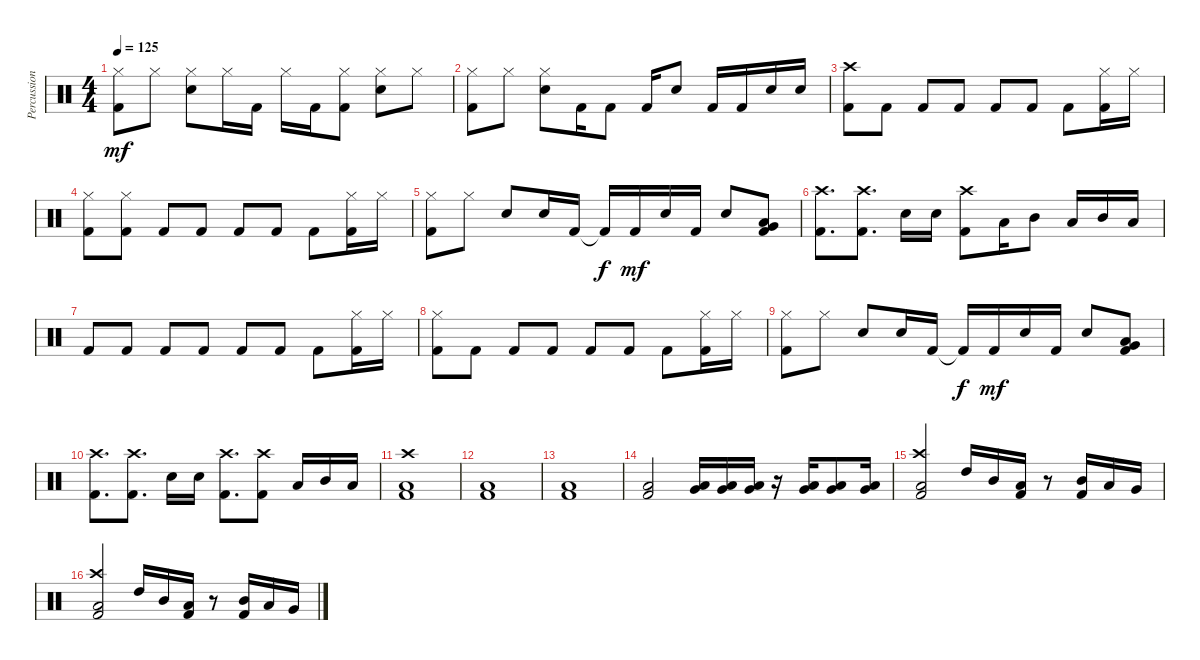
\track ("Percussion" "Percussion") {instrument percussion}
\staff {score}
\articulation defaults
\ts (4 4)
\tempo 125
\clef neutral
\ks c
("Hi-Hat (closed)" "Kick (hit) 2").8{dy mf} "Hi-Hat (closed)".8 ("Hi-Hat (closed)" "Electric Snare (hit)").8 "Hi-Hat (closed)".16 "Kick (hit) 2".16 "Hi-Hat (closed)".16 "Kick (hit) 2".16 ("Hi-Hat (closed)" "Kick (hit) 2").8 ("Hi-Hat (closed)" "Electric Snare (hit)").8 "Hi-Hat (closed)".8 |
("Hi-Hat (closed)" "Kick (hit) 2").8 "Hi-Hat (closed)".8 ("Hi-Hat (closed)" "Electric Snare (hit)").8 "Kick (hit) 2".16 "Kick (hit) 2".8 "Kick (hit) 2".16 "Electric Snare (hit)".8 "Kick (hit) 2".16 "Kick (hit) 2".16 "Electric Snare (hit)".16 "Electric Snare (hit)".16 |
("Crash high (hit)" "Kick (hit) 2").8 "Kick (hit) 2".8 "Kick (hit) 2".8 "Kick (hit) 2".8 "Kick (hit) 2".8 "Kick (hit) 2".8 "Kick (hit) 2".8 ("Hi-Hat (closed)" "Kick (hit) 2").16 "Hi-Hat (closed)".16 |
("Hi-Hat (closed)" "Kick (hit) 2").8 ("Hi-Hat (closed)" "Kick (hit) 2").8 "Kick (hit) 2".8 "Kick (hit) 2".8 "Kick (hit) 2".8 "Kick (hit) 2".8 "Kick (hit) 2".8 ("Hi-Hat (closed)" "Kick (hit) 2").16 "Hi-Hat (closed)".16 |
("Hi-Hat (closed)" "Kick (hit) 2").8 "Hi-Hat (closed)".8 "Electric Snare (hit)".8 "Electric Snare (hit)".16 "Kick (hit) 2".16 "Kick (hit) 2"{t}.16{dy f} "Kick (hit) 2".16{dy mf} "Electric Snare (hit)".16 "Kick (hit) 2".16 "Electric Snare (hit)".8 ("Very Low Tom (hit)" "Low Tom (hit)" "Kick (hit) 2").8 |
("Crash high (hit)" "Kick (hit) 2").8{d} ("Crash high (hit)" "Kick (hit) 2").8{d} "Electric Snare (hit)".16 "Electric Snare (hit)".16 ("Crash high (hit)" "Kick (hit) 2").8 "Low Tom (hit)".16 "Mid Tom (hit)".8 "Low Tom (hit)".16 "Mid Tom (hit)".16 "Low Tom (hit)".16 |
"Kick (hit) 2".8 "Kick (hit) 2".8 "Kick (hit) 2".8 "Kick (hit) 2".8 "Kick (hit) 2".8 "Kick (hit) 2".8 "Kick (hit) 2".8 ("Hi-Hat (closed)" "Kick (hit) 2").16 "Hi-Hat (closed)".16 |
("Hi-Hat (closed)" "Kick (hit) 2").8 "Kick (hit) 2".8 "Kick (hit) 2".8 "Kick (hit) 2".8 "Kick (hit) 2".8 "Kick (hit) 2".8 "Kick (hit) 2".8 ("Hi-Hat (closed)" "Kick (hit) 2").16 "Hi-Hat (closed)".16 |
("Hi-Hat (closed)" "Kick (hit) 2").8 "Hi-Hat (closed)".8 "Electric Snare (hit)".8 "Electric Snare (hit)".16 "Kick (hit) 2".16 "Kick (hit) 2"{t}.16{dy f} "Kick (hit) 2".16{dy mf} "Electric Snare (hit)".16 "Kick (hit) 2".16 "Electric Snare (hit)".8 ("Very Low Tom (hit)" "Low Tom (hit)" "Kick (hit) 2").8 |
("Crash high (hit)" "Kick (hit) 2").8{d} ("Crash high (hit)" "Kick (hit) 2").8{d} "Electric Snare (hit)".16 "Electric Snare (hit)".16 ("Crash high (hit)" "Kick (hit) 2").8{d} ("Crash high (hit)" "Kick (hit) 2").8 "Low Tom (hit)".16 "Mid Tom (hit)".16 "Low Tom (hit)".16 |
("Crash high (hit)" "Low Floor Tom (hit)" "Kick (hit) 2").1 |
("Low Floor Tom (hit)" "Kick (hit) 2").1 |
("Low Floor Tom (hit)" "Kick (hit) 2").1 |
("Low Floor Tom (hit)" "Kick (hit) 2").2 ("Low Tom (hit)" "Very Low Tom (hit)").16 ("Low Tom (hit)" "Very Low Tom (hit)").16 ("Low Tom (hit)" "Very Low Tom (hit)").16 r.16 ("Low Tom (hit)" "Very Low Tom (hit)").16 ("Low Tom (hit)" "Very Low Tom (hit)").8 ("Low Tom (hit)" "Very Low Tom (hit)").16 |
("Crash high (hit)" "Low Floor Tom (hit)" "Kick (hit) 2").2 "High Tom (hit)".16 "Mid Tom (hit)".16 ("Low Tom (hit)" "Kick (hit) 2").16 r.8 ("Mid Tom (hit)" "Kick (hit) 2").16 "Low Tom (hit)".16 "Very Low Tom (hit)".16 |
("Crash high (hit)" "Low Floor Tom (hit)" "Kick (hit) 2").2 "High Tom (hit)".16 "Mid Tom (hit)".16 ("Low Tom (hit)" "Kick (hit) 2").16 r.8 ("Mid Tom (hit)" "Kick (hit) 2").16 "Low Tom (hit)".16 "Very Low Tom (hit)".16
